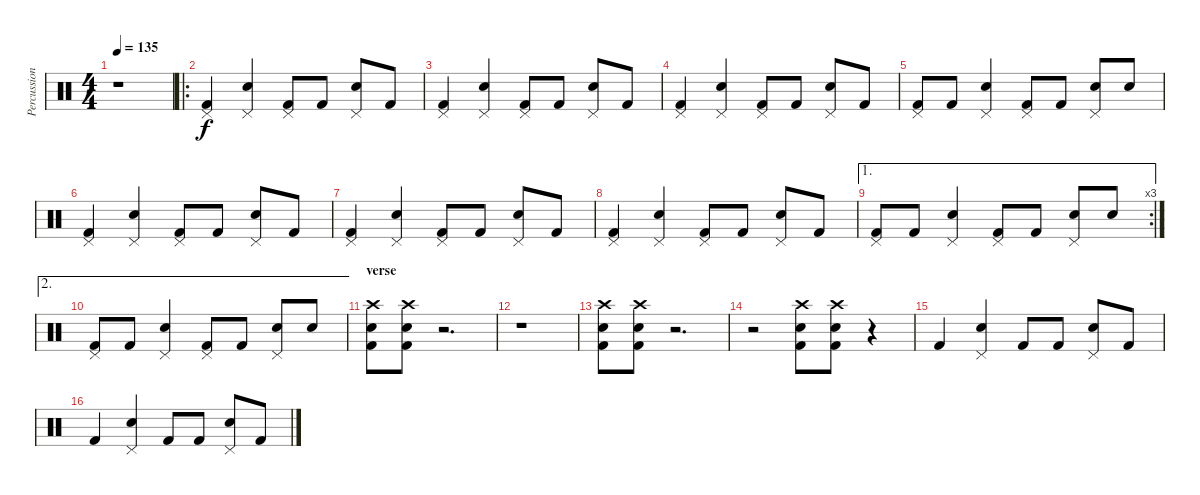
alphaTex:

\track ("Percussion" "Percussion") {instrument percussion}
\staff {score}
\articulation defaults
\ts (4 4)
\tempo 135
\clef neutral
\ks c
r.1{dy f} |
\ro
("Pedal Hi-Hat (hit)" "Kick (hit) 2").4 ("Pedal Hi-Hat (hit)" "Electric Snare (hit)").4 ("Pedal Hi-Hat (hit)" "Kick (hit) 2").8 "Kick (hit) 2".8 ("Pedal Hi-Hat (hit)" "Electric Snare (hit)").8 "Kick (hit) 2".8 |
("Pedal Hi-Hat (hit)" "Kick (hit) 2").4 ("Pedal Hi-Hat (hit)" "Electric Snare (hit)").4 ("Pedal Hi-Hat (hit)" "Kick (hit) 2").8 "Kick (hit) 2".8 ("Pedal Hi-Hat (hit)" "Electric Snare (hit)").8 "Kick (hit) 2".8 |
("Pedal Hi-Hat (hit)" "Kick (hit) 2").4 ("Pedal Hi-Hat (hit)" "Electric Snare (hit)").4 ("Pedal Hi-Hat (hit)" "Kick (hit) 2").8 "Kick (hit) 2".8 ("Pedal Hi-Hat (hit)" "Electric Snare (hit)").8 "Kick (hit) 2".8 |
("Pedal Hi-Hat (hit)" "Kick (hit) 2").8 "Kick (hit) 2".8 ("Pedal Hi-Hat (hit)" "Electric Snare (hit)").4 ("Pedal Hi-Hat (hit)" "Kick (hit) 2").8 "Kick (hit) 2".8 ("Pedal Hi-Hat (hit)" "Electric Snare (hit)").8 "Electric Snare (hit)".8 |
("Pedal Hi-Hat (hit)" "Kick (hit) 2").4 ("Pedal Hi-Hat (hit)" "Electric Snare (hit)").4 ("Pedal Hi-Hat (hit)" "Kick (hit) 2").8 "Kick (hit) 2".8 ("Pedal Hi-Hat (hit)" "Electric Snare (hit)").8 "Kick (hit) 2".8 |
("Pedal Hi-Hat (hit)" "Kick (hit) 2").4 ("Pedal Hi-Hat (hit)" "Electric Snare (hit)").4 ("Pedal Hi-Hat (hit)" "Kick (hit) 2").8 "Kick (hit) 2".8 ("Pedal Hi-Hat (hit)" "Electric Snare (hit)").8 "Kick (hit) 2".8 |
("Pedal Hi-Hat (hit)" "Kick (hit) 2").4 ("Pedal Hi-Hat (hit)" "Electric Snare (hit)").4 ("Pedal Hi-Hat (hit)" "Kick (hit) 2").8 "Kick (hit) 2".8 ("Pedal Hi-Hat (hit)" "Electric Snare (hit)").8 "Kick (hit) 2".8 |
\ae 1
\rc 3
("Pedal Hi-Hat (hit)" "Kick (hit) 2").8 "Kick (hit) 2".8 ("Pedal Hi-Hat (hit)" "Electric Snare (hit)").4 ("Pedal Hi-Hat (hit)" "Kick (hit) 2").8 "Kick (hit) 2".8 ("Pedal Hi-Hat (hit)" "Electric Snare (hit)").8 "Electric Snare (hit)".8 |
\ae 2
("Pedal Hi-Hat (hit)" "Kick (hit) 2").8 "Kick (hit) 2".8 ("Pedal Hi-Hat (hit)" "Electric Snare (hit)").4 ("Pedal Hi-Hat (hit)" "Kick (hit) 2").8 "Kick (hit) 2".8 ("Pedal Hi-Hat (hit)" "Electric Snare (hit)").8 "Electric Snare (hit)".8 |
\section ("" "verse")
("Crash high (hit)" "Electric Snare (hit)" "Kick (hit) 2").8 ("Crash high (hit)" "Electric Snare (hit)" "Kick (hit) 2").8 r.2{d} |
r.1 |
("Crash high (hit)" "Electric Snare (hit)" "Kick (hit) 2").8 ("Crash high (hit)" "Electric Snare (hit)" "Kick (hit) 2").8 r.2{d} |
r.2 ("Crash high (hit)" "Electric Snare (hit)" "Kick (hit) 2").8 ("Crash high (hit)" "Electric Snare (hit)" "Kick (hit) 2").8 r.4 |
"Kick (hit) 2".4 ("Pedal Hi-Hat (hit)" "Electric Snare (hit)").4 "Kick (hit) 2".8 "Kick (hit) 2".8 ("Pedal Hi-Hat (hit)" "Electric Snare (hit)").8 "Kick (hit) 2".8 |
"Kick (hit) 2".4 ("Pedal Hi-Hat (hit)" "Electric Snare (hit)").4 "Kick (hit) 2".8 "Kick (hit) 2".8 ("Pedal Hi-Hat (hit)" "Electric Snare (hit)").8 "Kick (hit) 2".8
